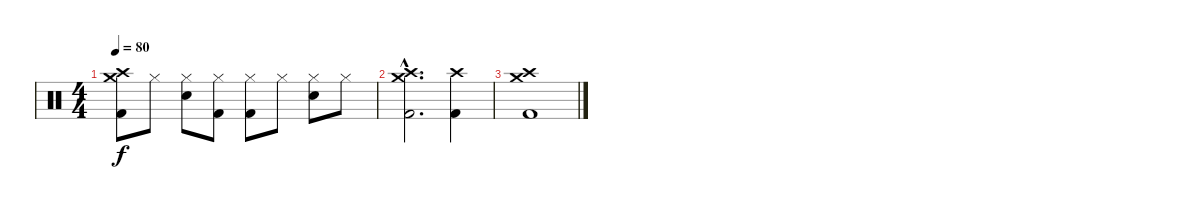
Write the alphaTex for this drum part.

\track "" {instrument percussion}
\staff {score}
\articulation defaults
\ts (4 4)
\tempo 80
\clef neutral
\ks c
("Kick (hit) 2" "Crash medium (hit)" "Crash high (hit)").8{dy f} "Hi-Hat (closed)".8 ("Hi-Hat (closed)" "Snare (hit) 2").8 ("Hi-Hat (closed)" "Kick (hit) 2").8 ("Kick (hit) 2" "Hi-Hat (closed)").8 "Hi-Hat (closed)".8 ("Hi-Hat (closed)" "Snare (hit) 2").8 "Hi-Hat (closed)".8 |
("Kick (hit) 2"{hac} "Crash medium (hit)"{hac} "Crash high (hit)"{hac}).2{d} ("Kick (hit) 2" "Crash high (hit)").4 |
("Kick (hit) 2" "Crash medium (hit)" "Crash high (hit)").1
